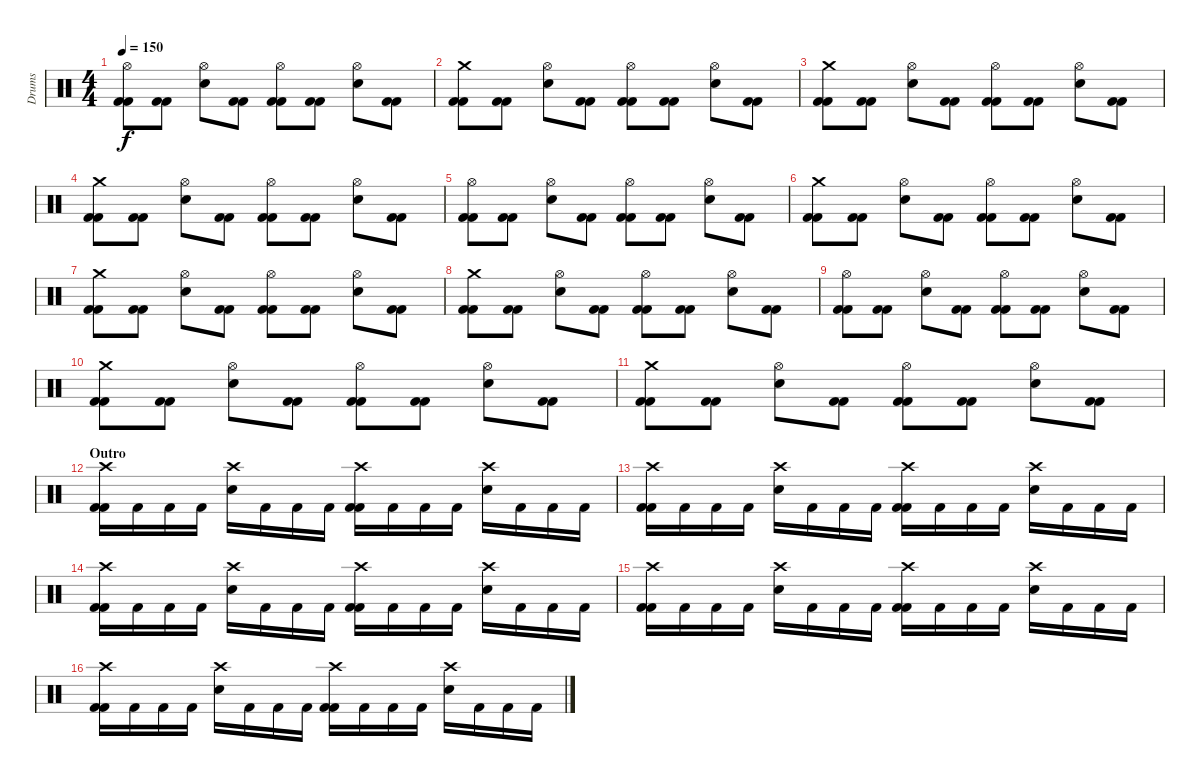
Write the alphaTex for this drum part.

\track ("Drums" "Drums") {instrument percussion}
\staff {score}
\articulation defaults
\ts (4 4)
\tempo 150
\clef neutral
\ks c
("Hi-Hat (open)" "Kick (hit) 2" "Kick (hit) 2").8{dy f} ("Kick (hit) 2" "Kick (hit) 2").8 ("Hi-Hat (open)" "Electric Snare (hit)").8 ("Kick (hit) 2" "Kick (hit) 2").8 ("Hi-Hat (open)" "Kick (hit) 2" "Kick (hit) 2").8 ("Kick (hit) 2" "Kick (hit) 2").8 ("Electric Snare (hit)" "Hi-Hat (open)").8 ("Kick (hit) 2" "Kick (hit) 2").8 |
("Crash medium (hit)" "Kick (hit) 2" "Kick (hit) 2").8 ("Kick (hit) 2" "Kick (hit) 2").8 ("Hi-Hat (open)" "Electric Snare (hit)").8 ("Kick (hit) 2" "Kick (hit) 2").8 ("Hi-Hat (open)" "Kick (hit) 2" "Kick (hit) 2").8 ("Kick (hit) 2" "Kick (hit) 2").8 ("Electric Snare (hit)" "Hi-Hat (open)").8 ("Kick (hit) 2" "Kick (hit) 2").8 |
("Crash medium (hit)" "Kick (hit) 2" "Kick (hit) 2").8 ("Kick (hit) 2" "Kick (hit) 2").8 ("Hi-Hat (open)" "Electric Snare (hit)").8 ("Kick (hit) 2" "Kick (hit) 2").8 ("Hi-Hat (open)" "Kick (hit) 2" "Kick (hit) 2").8 ("Kick (hit) 2" "Kick (hit) 2").8 ("Electric Snare (hit)" "Hi-Hat (open)").8 ("Kick (hit) 2" "Kick (hit) 2").8 |
("Crash medium (hit)" "Kick (hit) 2" "Kick (hit) 2").8 ("Kick (hit) 2" "Kick (hit) 2").8 ("Hi-Hat (open)" "Electric Snare (hit)").8 ("Kick (hit) 2" "Kick (hit) 2").8 ("Hi-Hat (open)" "Kick (hit) 2" "Kick (hit) 2").8 ("Kick (hit) 2" "Kick (hit) 2").8 ("Electric Snare (hit)" "Hi-Hat (open)").8 ("Kick (hit) 2" "Kick (hit) 2").8 |
("Hi-Hat (open)" "Kick (hit) 2" "Kick (hit) 2").8 ("Kick (hit) 2" "Kick (hit) 2").8 ("Hi-Hat (open)" "Electric Snare (hit)").8 ("Kick (hit) 2" "Kick (hit) 2").8 ("Hi-Hat (open)" "Kick (hit) 2" "Kick (hit) 2").8 ("Kick (hit) 2" "Kick (hit) 2").8 ("Electric Snare (hit)" "Hi-Hat (open)").8 ("Kick (hit) 2" "Kick (hit) 2").8 |
("Crash medium (hit)" "Kick (hit) 2" "Kick (hit) 2").8 ("Kick (hit) 2" "Kick (hit) 2").8 ("Hi-Hat (open)" "Electric Snare (hit)").8 ("Kick (hit) 2" "Kick (hit) 2").8 ("Hi-Hat (open)" "Kick (hit) 2" "Kick (hit) 2").8 ("Kick (hit) 2" "Kick (hit) 2").8 ("Electric Snare (hit)" "Hi-Hat (open)").8 ("Kick (hit) 2" "Kick (hit) 2").8 |
("Crash medium (hit)" "Kick (hit) 2" "Kick (hit) 2").8 ("Kick (hit) 2" "Kick (hit) 2").8 ("Hi-Hat (open)" "Electric Snare (hit)").8 ("Kick (hit) 2" "Kick (hit) 2").8 ("Hi-Hat (open)" "Kick (hit) 2" "Kick (hit) 2").8 ("Kick (hit) 2" "Kick (hit) 2").8 ("Electric Snare (hit)" "Hi-Hat (open)").8 ("Kick (hit) 2" "Kick (hit) 2").8 |
("Crash medium (hit)" "Kick (hit) 2" "Kick (hit) 2").8 ("Kick (hit) 2" "Kick (hit) 2").8 ("Hi-Hat (open)" "Electric Snare (hit)").8 ("Kick (hit) 2" "Kick (hit) 2").8 ("Hi-Hat (open)" "Kick (hit) 2" "Kick (hit) 2").8 ("Kick (hit) 2" "Kick (hit) 2").8 ("Electric Snare (hit)" "Hi-Hat (open)").8 ("Kick (hit) 2" "Kick (hit) 2").8 |
("Hi-Hat (open)" "Kick (hit) 2" "Kick (hit) 2").8 ("Kick (hit) 2" "Kick (hit) 2").8 ("Hi-Hat (open)" "Electric Snare (hit)").8 ("Kick (hit) 2" "Kick (hit) 2").8 ("Hi-Hat (open)" "Kick (hit) 2" "Kick (hit) 2").8 ("Kick (hit) 2" "Kick (hit) 2").8 ("Electric Snare (hit)" "Hi-Hat (open)").8 ("Kick (hit) 2" "Kick (hit) 2").8 |
("Crash medium (hit)" "Kick (hit) 2" "Kick (hit) 2").8 ("Kick (hit) 2" "Kick (hit) 2").8 ("Hi-Hat (open)" "Electric Snare (hit)").8 ("Kick (hit) 2" "Kick (hit) 2").8 ("Hi-Hat (open)" "Kick (hit) 2" "Kick (hit) 2").8 ("Kick (hit) 2" "Kick (hit) 2").8 ("Electric Snare (hit)" "Hi-Hat (open)").8 ("Kick (hit) 2" "Kick (hit) 2").8 |
("Crash medium (hit)" "Kick (hit) 2" "Kick (hit) 2").8 ("Kick (hit) 2" "Kick (hit) 2").8 ("Hi-Hat (open)" "Electric Snare (hit)").8 ("Kick (hit) 2" "Kick (hit) 2").8 ("Hi-Hat (open)" "Kick (hit) 2" "Kick (hit) 2").8 ("Kick (hit) 2" "Kick (hit) 2").8 ("Electric Snare (hit)" "Hi-Hat (open)").8 ("Kick (hit) 2" "Kick (hit) 2").8 |
\section ("" "Outro")
("Crash high (hit)" "Kick (hit) 2" "Kick (hit) 2").16 "Kick (hit) 2".16 "Kick (hit) 2".16 "Kick (hit) 2".16 ("Electric Snare (hit)" "Crash high (hit)").16 "Kick (hit) 2".16 "Kick (hit) 2".16 "Kick (hit) 2".16 ("Kick (hit) 2" "Kick (hit) 2" "Crash high (hit)").16 "Kick (hit) 2".16 "Kick (hit) 2".16 "Kick (hit) 2".16 ("Crash high (hit)" "Electric Snare (hit)").16 "Kick (hit) 2".16 "Kick (hit) 2".16 "Kick (hit) 2".16 |
("Crash high (hit)" "Kick (hit) 2" "Kick (hit) 2").16 "Kick (hit) 2".16 "Kick (hit) 2".16 "Kick (hit) 2".16 ("Electric Snare (hit)" "Crash high (hit)").16 "Kick (hit) 2".16 "Kick (hit) 2".16 "Kick (hit) 2".16 ("Kick (hit) 2" "Kick (hit) 2" "Crash high (hit)").16 "Kick (hit) 2".16 "Kick (hit) 2".16 "Kick (hit) 2".16 ("Crash high (hit)" "Electric Snare (hit)").16 "Kick (hit) 2".16 "Kick (hit) 2".16 "Kick (hit) 2".16 |
("Crash high (hit)" "Kick (hit) 2" "Kick (hit) 2").16 "Kick (hit) 2".16 "Kick (hit) 2".16 "Kick (hit) 2".16 ("Electric Snare (hit)" "Crash high (hit)").16 "Kick (hit) 2".16 "Kick (hit) 2".16 "Kick (hit) 2".16 ("Kick (hit) 2" "Kick (hit) 2" "Crash high (hit)").16 "Kick (hit) 2".16 "Kick (hit) 2".16 "Kick (hit) 2".16 ("Crash high (hit)" "Electric Snare (hit)").16 "Kick (hit) 2".16 "Kick (hit) 2".16 "Kick (hit) 2".16 |
("Crash high (hit)" "Kick (hit) 2" "Kick (hit) 2").16 "Kick (hit) 2".16 "Kick (hit) 2".16 "Kick (hit) 2".16 ("Electric Snare (hit)" "Crash high (hit)").16 "Kick (hit) 2".16 "Kick (hit) 2".16 "Kick (hit) 2".16 ("Kick (hit) 2" "Kick (hit) 2" "Crash high (hit)").16 "Kick (hit) 2".16 "Kick (hit) 2".16 "Kick (hit) 2".16 ("Crash high (hit)" "Electric Snare (hit)").16 "Kick (hit) 2".16 "Kick (hit) 2".16 "Kick (hit) 2".16 |
("Crash high (hit)" "Kick (hit) 2" "Kick (hit) 2").16 "Kick (hit) 2".16 "Kick (hit) 2".16 "Kick (hit) 2".16 ("Electric Snare (hit)" "Crash high (hit)").16 "Kick (hit) 2".16 "Kick (hit) 2".16 "Kick (hit) 2".16 ("Kick (hit) 2" "Kick (hit) 2" "Crash high (hit)").16 "Kick (hit) 2".16 "Kick (hit) 2".16 "Kick (hit) 2".16 ("Crash high (hit)" "Electric Snare (hit)").16 "Kick (hit) 2".16 "Kick (hit) 2".16 "Kick (hit) 2".16
